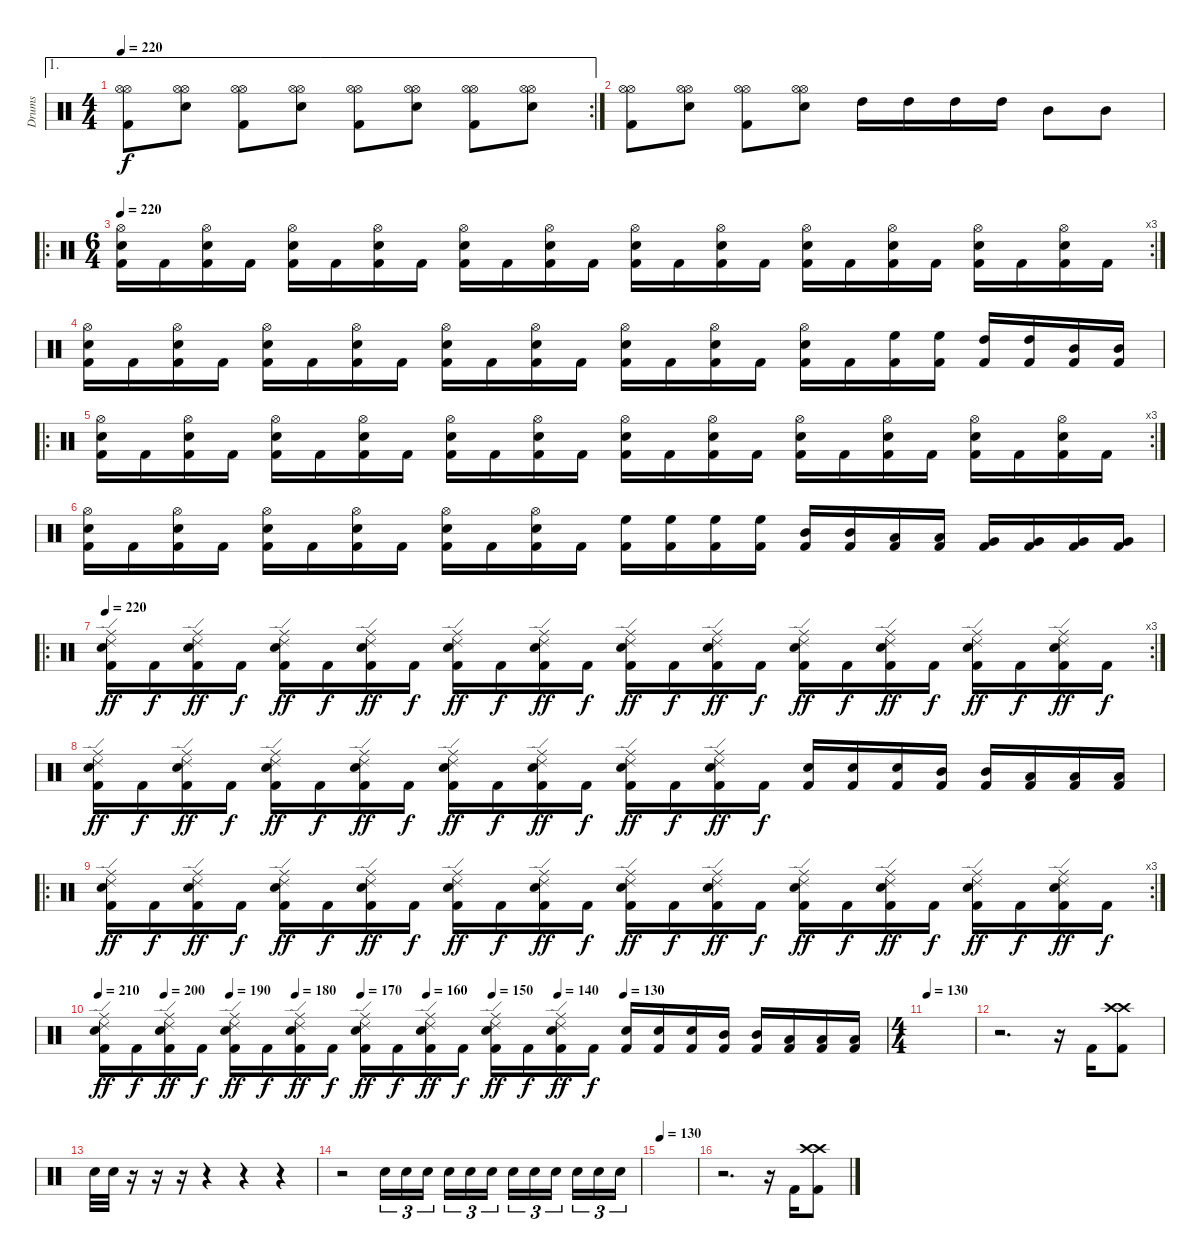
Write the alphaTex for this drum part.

\track ("Drums" "Drums") {instrument percussion}
\staff {score}
\articulation defaults
\ae 1
\rc 2
\ts (4 4)
\tempo 220
\clef neutral
\ks c
("Hi-Hat (open)" "Hi-Hat (open)" "Kick (hit) 2").8{dy f} ("Hi-Hat (open)" "Hi-Hat (open)" "Snare (hit) 2").8 ("Hi-Hat (open)" "Hi-Hat (open)" "Kick (hit) 2").8 ("Hi-Hat (open)" "Hi-Hat (open)" "Snare (hit) 2").8 ("Hi-Hat (open)" "Hi-Hat (open)" "Kick (hit) 2").8 ("Hi-Hat (open)" "Hi-Hat (open)" "Snare (hit) 2").8 ("Hi-Hat (open)" "Hi-Hat (open)" "Kick (hit) 2").8 ("Hi-Hat (open)" "Hi-Hat (open)" "Snare (hit) 2").8 |
("Hi-Hat (open)" "Hi-Hat (open)" "Kick (hit) 2").8 ("Hi-Hat (open)" "Hi-Hat (open)" "Snare (hit) 2").8 ("Hi-Hat (open)" "Hi-Hat (open)" "Kick (hit) 2").8 ("Hi-Hat (open)" "Hi-Hat (open)" "Snare (hit) 2").8 "High Tom (hit)".16 "High Tom (hit)".16 "High Tom (hit)".16 "High Tom (hit)".16 "Mid Tom (hit)".8 "Mid Tom (hit)".8 |
\ro
\rc 3
\ts (6 4)
\tempo 220
("Hi-Hat (open)" "Snare (hit) 2" "Kick (hit) 2").16 "Kick (hit) 2".16 ("Hi-Hat (open)" "Snare (hit) 2" "Kick (hit) 2").16 "Kick (hit) 2".16 ("Hi-Hat (open)" "Snare (hit) 2" "Kick (hit) 2").16 "Kick (hit) 2".16 ("Hi-Hat (open)" "Snare (hit) 2" "Kick (hit) 2").16 "Kick (hit) 2".16 ("Hi-Hat (open)" "Snare (hit) 2" "Kick (hit) 2").16 "Kick (hit) 2".16 ("Hi-Hat (open)" "Snare (hit) 2" "Kick (hit) 2").16 "Kick (hit) 2".16 ("Hi-Hat (open)" "Snare (hit) 2" "Kick (hit) 2").16 "Kick (hit) 2".16 ("Hi-Hat (open)" "Snare (hit) 2" "Kick (hit) 2").16 "Kick (hit) 2".16 ("Hi-Hat (open)" "Snare (hit) 2" "Kick (hit) 2").16 "Kick (hit) 2".16 ("Hi-Hat (open)" "Snare (hit) 2" "Kick (hit) 2").16 "Kick (hit) 2".16 ("Hi-Hat (open)" "Snare (hit) 2" "Kick (hit) 2").16 "Kick (hit) 2".16 ("Hi-Hat (open)" "Snare (hit) 2" "Kick (hit) 2").16 "Kick (hit) 2".16 |
("Hi-Hat (open)" "Snare (hit) 2" "Kick (hit) 2").16 "Kick (hit) 2".16 ("Hi-Hat (open)" "Snare (hit) 2" "Kick (hit) 2").16 "Kick (hit) 2".16 ("Hi-Hat (open)" "Snare (hit) 2" "Kick (hit) 2").16 "Kick (hit) 2".16 ("Hi-Hat (open)" "Snare (hit) 2" "Kick (hit) 2").16 "Kick (hit) 2".16 ("Hi-Hat (open)" "Snare (hit) 2" "Kick (hit) 2").16 "Kick (hit) 2".16 ("Hi-Hat (open)" "Snare (hit) 2" "Kick (hit) 2").16 "Kick (hit) 2".16 ("Hi-Hat (open)" "Snare (hit) 2" "Kick (hit) 2").16 "Kick (hit) 2".16 ("Hi-Hat (open)" "Snare (hit) 2" "Kick (hit) 2").16 "Kick (hit) 2".16 ("Hi-Hat (open)" "Snare (hit) 2" "Kick (hit) 2").16 "Kick (hit) 2".16 ("High Floor Tom (hit)" "Kick (hit) 2").16 ("High Floor Tom (hit)" "Kick (hit) 2").16 ("High Tom (hit)" "Kick (hit) 2").16 ("High Tom (hit)" "Kick (hit) 2").16 ("Mid Tom (hit)" "Kick (hit) 2").16 ("Mid Tom (hit)" "Kick (hit) 2").16 |
\ro
\rc 3
("Hi-Hat (open)" "Snare (hit) 2" "Kick (hit) 2").16 "Kick (hit) 2".16 ("Hi-Hat (open)" "Snare (hit) 2" "Kick (hit) 2").16 "Kick (hit) 2".16 ("Hi-Hat (open)" "Snare (hit) 2" "Kick (hit) 2").16 "Kick (hit) 2".16 ("Hi-Hat (open)" "Snare (hit) 2" "Kick (hit) 2").16 "Kick (hit) 2".16 ("Hi-Hat (open)" "Snare (hit) 2" "Kick (hit) 2").16 "Kick (hit) 2".16 ("Hi-Hat (open)" "Snare (hit) 2" "Kick (hit) 2").16 "Kick (hit) 2".16 ("Hi-Hat (open)" "Snare (hit) 2" "Kick (hit) 2").16 "Kick (hit) 2".16 ("Hi-Hat (open)" "Snare (hit) 2" "Kick (hit) 2").16 "Kick (hit) 2".16 ("Hi-Hat (open)" "Snare (hit) 2" "Kick (hit) 2").16 "Kick (hit) 2".16 ("Hi-Hat (open)" "Snare (hit) 2" "Kick (hit) 2").16 "Kick (hit) 2".16 ("Hi-Hat (open)" "Snare (hit) 2" "Kick (hit) 2").16 "Kick (hit) 2".16 ("Hi-Hat (open)" "Snare (hit) 2" "Kick (hit) 2").16 "Kick (hit) 2".16 |
("Hi-Hat (open)" "Snare (hit) 2" "Kick (hit) 2").16 "Kick (hit) 2".16 ("Hi-Hat (open)" "Snare (hit) 2" "Kick (hit) 2").16 "Kick (hit) 2".16 ("Hi-Hat (open)" "Snare (hit) 2" "Kick (hit) 2").16 "Kick (hit) 2".16 ("Hi-Hat (open)" "Snare (hit) 2" "Kick (hit) 2").16 "Kick (hit) 2".16 ("Hi-Hat (open)" "Snare (hit) 2" "Kick (hit) 2").16 "Kick (hit) 2".16 ("Hi-Hat (open)" "Snare (hit) 2" "Kick (hit) 2").16 "Kick (hit) 2".16 ("High Floor Tom (hit)" "Kick (hit) 2").16 ("High Floor Tom (hit)" "Kick (hit) 2").16 ("High Floor Tom (hit)" "Kick (hit) 2").16 ("High Floor Tom (hit)" "Kick (hit) 2").16 ("Mid Tom (hit)" "Kick (hit) 2").16 ("Mid Tom (hit)" "Kick (hit) 2").16 ("Low Tom (hit)" "Kick (hit) 2").16 ("Low Tom (hit)" "Kick (hit) 2").16 ("Very Low Tom (hit)" "Kick (hit) 2").16 ("Very Low Tom (hit)" "Kick (hit) 2").16 ("Very Low Tom (hit)" "Kick (hit) 2").16 ("Very Low Tom (hit)" "Kick (hit) 2").16 |
\ro
\rc 3
\tempo 220
("Ride (edge) 2" "Ride (middle)" "Snare (hit) 2" "Kick (hit) 2").16{dy ff} "Kick (hit) 2".16{dy f} ("Ride (edge) 2" "Ride (middle)" "Snare (hit) 2" "Kick (hit) 2").16{dy ff} "Kick (hit) 2".16{dy f} ("Ride (edge) 2" "Ride (middle)" "Snare (hit) 2" "Kick (hit) 2").16{dy ff} "Kick (hit) 2".16{dy f} ("Ride (edge) 2" "Ride (middle)" "Snare (hit) 2" "Kick (hit) 2").16{dy ff} "Kick (hit) 2".16{dy f} ("Ride (edge) 2" "Ride (middle)" "Snare (hit) 2" "Kick (hit) 2").16{dy ff} "Kick (hit) 2".16{dy f} ("Ride (edge) 2" "Ride (middle)" "Snare (hit) 2" "Kick (hit) 2").16{dy ff} "Kick (hit) 2".16{dy f} ("Ride (edge) 2" "Ride (middle)" "Snare (hit) 2" "Kick (hit) 2").16{dy ff} "Kick (hit) 2".16{dy f} ("Ride (edge) 2" "Ride (middle)" "Snare (hit) 2" "Kick (hit) 2").16{dy ff} "Kick (hit) 2".16{dy f} ("Ride (edge) 2" "Ride (middle)" "Snare (hit) 2" "Kick (hit) 2").16{dy ff} "Kick (hit) 2".16{dy f} ("Ride (edge) 2" "Ride (middle)" "Snare (hit) 2" "Kick (hit) 2").16{dy ff} "Kick (hit) 2".16{dy f} ("Ride (edge) 2" "Ride (middle)" "Snare (hit) 2" "Kick (hit) 2").16{dy ff} "Kick (hit) 2".16{dy f} ("Ride (edge) 2" "Ride (middle)" "Snare (hit) 2" "Kick (hit) 2").16{dy ff} "Kick (hit) 2".16{dy f} |
("Ride (edge) 2" "Ride (middle)" "Snare (hit) 2" "Kick (hit) 2").16{dy ff} "Kick (hit) 2".16{dy f} ("Ride (edge) 2" "Ride (middle)" "Snare (hit) 2" "Kick (hit) 2").16{dy ff} "Kick (hit) 2".16{dy f} ("Ride (edge) 2" "Ride (middle)" "Snare (hit) 2" "Kick (hit) 2").16{dy ff} "Kick (hit) 2".16{dy f} ("Ride (edge) 2" "Ride (middle)" "Snare (hit) 2" "Kick (hit) 2").16{dy ff} "Kick (hit) 2".16{dy f} ("Ride (edge) 2" "Ride (middle)" "Snare (hit) 2" "Kick (hit) 2").16{dy ff} "Kick (hit) 2".16{dy f} ("Ride (edge) 2" "Ride (middle)" "Snare (hit) 2" "Kick (hit) 2").16{dy ff} "Kick (hit) 2".16{dy f} ("Ride (edge) 2" "Ride (middle)" "Snare (hit) 2" "Kick (hit) 2").16{dy ff} "Kick (hit) 2".16{dy f} ("Ride (edge) 2" "Ride (middle)" "Snare (hit) 2" "Kick (hit) 2").16{dy ff} "Kick (hit) 2".16{dy f} ("Snare (hit) 2" "Kick (hit) 2").16 ("Snare (hit) 2" "Kick (hit) 2").16 ("Snare (hit) 2" "Kick (hit) 2").16 ("Mid Tom (hit)" "Kick (hit) 2").16 ("Mid Tom (hit)" "Kick (hit) 2").16 ("Low Tom (hit)" "Kick (hit) 2").16 ("Low Tom (hit)" "Kick (hit) 2").16 ("Low Tom (hit)" "Kick (hit) 2").16 |
\ro
\rc 3
("Ride (edge) 2" "Ride (middle)" "Snare (hit) 2" "Kick (hit) 2").16{dy ff} "Kick (hit) 2".16{dy f} ("Ride (edge) 2" "Ride (middle)" "Snare (hit) 2" "Kick (hit) 2").16{dy ff} "Kick (hit) 2".16{dy f} ("Ride (edge) 2" "Ride (middle)" "Snare (hit) 2" "Kick (hit) 2").16{dy ff} "Kick (hit) 2".16{dy f} ("Ride (edge) 2" "Ride (middle)" "Snare (hit) 2" "Kick (hit) 2").16{dy ff} "Kick (hit) 2".16{dy f} ("Ride (edge) 2" "Ride (middle)" "Snare (hit) 2" "Kick (hit) 2").16{dy ff} "Kick (hit) 2".16{dy f} ("Ride (edge) 2" "Ride (middle)" "Snare (hit) 2" "Kick (hit) 2").16{dy ff} "Kick (hit) 2".16{dy f} ("Ride (edge) 2" "Ride (middle)" "Snare (hit) 2" "Kick (hit) 2").16{dy ff} "Kick (hit) 2".16{dy f} ("Ride (edge) 2" "Ride (middle)" "Snare (hit) 2" "Kick (hit) 2").16{dy ff} "Kick (hit) 2".16{dy f} ("Ride (edge) 2" "Ride (middle)" "Snare (hit) 2" "Kick (hit) 2").16{dy ff} "Kick (hit) 2".16{dy f} ("Ride (edge) 2" "Ride (middle)" "Snare (hit) 2" "Kick (hit) 2").16{dy ff} "Kick (hit) 2".16{dy f} ("Ride (edge) 2" "Ride (middle)" "Snare (hit) 2" "Kick (hit) 2").16{dy ff} "Kick (hit) 2".16{dy f} ("Ride (edge) 2" "Ride (middle)" "Snare (hit) 2" "Kick (hit) 2").16{dy ff} "Kick (hit) 2".16{dy f} |
\tempo 210
\tempo (200 0.08333333333333333)
\tempo (190 0.16666666666666666)
\tempo (180 0.25)
\tempo (170 0.3333333333333333)
\tempo (160 0.4166666666666667)
\tempo (150 0.5)
\tempo (140 0.5833333333333334)
\tempo (130 0.6666666666666666)
("Ride (edge) 2" "Ride (middle)" "Snare (hit) 2" "Kick (hit) 2").16{dy ff} "Kick (hit) 2".16{dy f} ("Ride (edge) 2" "Ride (middle)" "Snare (hit) 2" "Kick (hit) 2").16{dy ff} "Kick (hit) 2".16{dy f} ("Ride (edge) 2" "Ride (middle)" "Snare (hit) 2" "Kick (hit) 2").16{dy ff} "Kick (hit) 2".16{dy f} ("Ride (edge) 2" "Ride (middle)" "Snare (hit) 2" "Kick (hit) 2").16{dy ff} "Kick (hit) 2".16{dy f} ("Ride (edge) 2" "Ride (middle)" "Snare (hit) 2" "Kick (hit) 2").16{dy ff} "Kick (hit) 2".16{dy f} ("Ride (edge) 2" "Ride (middle)" "Snare (hit) 2" "Kick (hit) 2").16{dy ff} "Kick (hit) 2".16{dy f} ("Ride (edge) 2" "Ride (middle)" "Snare (hit) 2" "Kick (hit) 2").16{dy ff} "Kick (hit) 2".16{dy f} ("Ride (edge) 2" "Ride (middle)" "Snare (hit) 2" "Kick (hit) 2").16{dy ff} "Kick (hit) 2".16{dy f} ("Snare (hit) 2" "Kick (hit) 2").16 ("Snare (hit) 2" "Kick (hit) 2").16 ("Snare (hit) 2" "Kick (hit) 2").16 ("Mid Tom (hit)" "Kick (hit) 2").16 ("Mid Tom (hit)" "Kick (hit) 2").16 ("Low Tom (hit)" "Kick (hit) 2").16 ("Low Tom (hit)" "Kick (hit) 2").16 ("Low Tom (hit)" "Kick (hit) 2").16 |
\ts (4 4)
\tempo 130
|
r.2{d} r.16 "Kick (hit) 2".16 ("Crash high (hit)" "Crash high (hit)" "Kick (hit) 2").8 |
"Snare (hit) 2".32 "Snare (hit) 2".32 r.16 r.16 r.16 r.4 r.4 r.4 |
r.2 "Snare (hit) 2".16{tu (3 2)} "Snare (hit) 2".16{tu (3 2)} "Snare (hit) 2".16{tu (3 2)} "Snare (hit) 2".16{tu (3 2)} "Snare (hit) 2".16{tu (3 2)} "Snare (hit) 2".16{tu (3 2)} "Snare (hit) 2".16{tu (3 2)} "Snare (hit) 2".16{tu (3 2)} "Snare (hit) 2".16{tu (3 2)} "Snare (hit) 2".16{tu (3 2)} "Snare (hit) 2".16{tu (3 2)} "Snare (hit) 2".16{tu (3 2)} |
\tempo 130
|
r.2{d} r.16 "Kick (hit) 2".16 ("Crash high (hit)" "Crash high (hit)" "Kick (hit) 2").8
